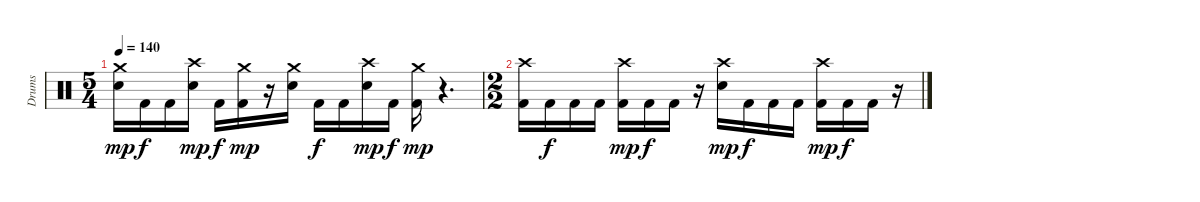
\track ("Drums" "Drums") {instrument percussion}
\staff {score}
\articulation defaults
\ts (5 4)
\tempo 140
\clef neutral
\ks c
("Crash medium (hit)" "Snare (hit) 2").16{dy mp} "Kick (hit) 2".16{dy f} "Kick (hit) 2".16 ("Crash high (hit)" "Snare (hit) 2").16{dy mp} "Kick (hit) 2".16{dy f} ("Crash medium (hit)" "Kick (hit) 2").16{dy mp} r.16 ("Crash medium (hit)" "Snare (hit) 2").16 "Kick (hit) 2".16{dy f} "Kick (hit) 2".16 ("Crash high (hit)" "Snare (hit) 2").16{dy mp} "Kick (hit) 2".16{dy f} ("Crash medium (hit)" "Kick (hit) 2").16{dy mp} r.4{d} |
\ts (2 2)
("Crash high (hit)" "Kick (hit) 2").16 "Kick (hit) 2".16{dy f} "Kick (hit) 2".16 "Kick (hit) 2".16 ("Crash high (hit)" "Kick (hit) 2").16{dy mp} "Kick (hit) 2".16{dy f} "Kick (hit) 2".16 r.16 ("Crash high (hit)" "Snare (hit) 2").16{dy mp} "Kick (hit) 2".16{dy f} "Kick (hit) 2".16 "Kick (hit) 2".16 ("Crash high (hit)" "Kick (hit) 2").16{dy mp} "Kick (hit) 2".16{dy f} "Kick (hit) 2".16 r.16
